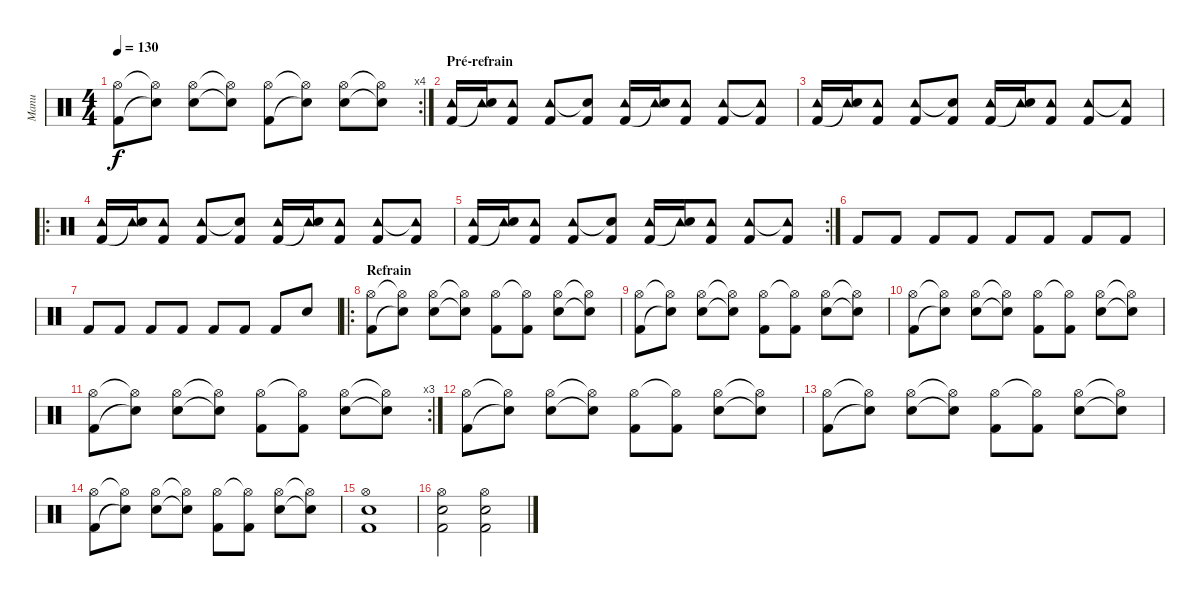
\track ("Manu" "Manu") {instrument percussion}
\staff {score}
\articulation defaults
\rc 4
\ts (4 4)
\tempo 130
\clef neutral
\ks c
("Hi-Hat (open)" "Kick (hit) 2").8{dy f} ("Hi-Hat (open)"{t} "Snare (hit) 2"{t}).8 ("Hi-Hat (open)" "Electric Snare (hit)").8 ("Hi-Hat (open)"{t} "Snare (hit) 2"{t}).8 ("Hi-Hat (open)" "Kick (hit) 2").8 ("Hi-Hat (open)"{t} "Snare (hit)"{t}).8 ("Hi-Hat (open)" "Electric Snare (hit)").8 ("Hi-Hat (open)"{t} "Snare (hit)"{t}).8 |
\section ("" "Pré-refrain")
("Tambourine (hit)" "Kick (hit) 2").16{volume 8} ("Tambourine (hit)" "Snare (hit)"{t}).16 ("Tambourine (hit)" "Kick (hit) 2").8 ("Tambourine (hit)" "Kick (hit) 2").8 ("Snare (hit)"{t} "Kick (hit) 2").8 ("Tambourine (hit)" "Kick (hit) 2").16 ("Tambourine (hit)" "Snare (hit)"{t}).16 ("Tambourine (hit)" "Kick (hit) 2").8 ("Tambourine (hit)" "Kick (hit) 2").8 ("Tambourine (hit)"{t} "Kick (hit) 2").8 |
("Tambourine (hit)" "Kick (hit) 2").16{volume 8} ("Tambourine (hit)" "Snare (hit)"{t}).16 ("Tambourine (hit)" "Kick (hit) 2").8 ("Tambourine (hit)" "Kick (hit) 2").8 ("Snare (hit)"{t} "Kick (hit) 2").8 ("Tambourine (hit)" "Kick (hit) 2").16 ("Tambourine (hit)" "Snare (hit)"{t}).16 ("Tambourine (hit)" "Kick (hit) 2").8 ("Tambourine (hit)" "Kick (hit) 2").8 ("Tambourine (hit)"{t} "Kick (hit) 2").8 |
\ro
("Tambourine (hit)" "Kick (hit) 2").16{volume 8} ("Tambourine (hit)" "Snare (hit)"{t}).16 ("Tambourine (hit)" "Kick (hit) 2").8 ("Tambourine (hit)" "Kick (hit) 2").8 ("Snare (hit)"{t} "Kick (hit) 2").8 ("Tambourine (hit)" "Kick (hit) 2").16 ("Tambourine (hit)" "Snare (hit)"{t}).16 ("Tambourine (hit)" "Kick (hit) 2").8 ("Tambourine (hit)" "Kick (hit) 2").8 ("Tambourine (hit)"{t} "Kick (hit) 2").8 |
\rc 2
("Tambourine (hit)" "Kick (hit) 2").16{volume 8} ("Tambourine (hit)" "Snare (hit)"{t}).16 ("Tambourine (hit)" "Kick (hit) 2").8 ("Tambourine (hit)" "Kick (hit) 2").8 ("Snare (hit)"{t} "Kick (hit) 2").8 ("Tambourine (hit)" "Kick (hit) 2").16 ("Tambourine (hit)" "Snare (hit)"{t}).16 ("Tambourine (hit)" "Kick (hit) 2").8 ("Tambourine (hit)" "Kick (hit) 2").8 ("Tambourine (hit)"{t} "Kick (hit) 2").8 |
"Kick (hit) 2".8{volume 10} "Kick (hit) 2".8 "Kick (hit) 2".8 "Kick (hit) 2".8 "Kick (hit) 2".8 "Kick (hit) 2".8 "Kick (hit) 2".8 "Kick (hit) 2".8 |
"Kick (hit) 2".8 "Kick (hit) 2".8 "Kick (hit) 2".8 "Kick (hit) 2".8 "Kick (hit) 2".8 "Kick (hit) 2".8 "Kick (hit) 2".8 "Snare (hit) 2".8 |
\ro
\section ("" "Refrain")
("Hi-Hat (open)" "Kick (hit) 2").8{volume 12} ("Hi-Hat (open)"{t} "Snare (hit) 2"{t}).8 ("Hi-Hat (open)" "Snare (hit) 2").8 ("Hi-Hat (open)"{t} "Snare (hit) 2"{t}).8 ("Hi-Hat (open)" "Kick (hit) 2").8 ("Hi-Hat (open)"{t} "Kick (hit) 2").8 ("Hi-Hat (open)" "Snare (hit) 2").8 ("Hi-Hat (open)"{t} "Snare (hit)"{t}).8 |
("Hi-Hat (open)" "Kick (hit) 2").8 ("Hi-Hat (open)"{t} "Snare (hit) 2"{t}).8 ("Hi-Hat (open)" "Snare (hit) 2").8 ("Hi-Hat (open)"{t} "Snare (hit) 2"{t}).8 ("Hi-Hat (open)" "Kick (hit) 2").8 ("Hi-Hat (open)"{t} "Kick (hit) 2").8 ("Hi-Hat (open)" "Snare (hit) 2").8 ("Hi-Hat (open)"{t} "Snare (hit)"{t}).8 |
("Hi-Hat (open)" "Kick (hit) 2").8 ("Hi-Hat (open)"{t} "Snare (hit) 2"{t}).8 ("Hi-Hat (open)" "Snare (hit) 2").8 ("Hi-Hat (open)"{t} "Snare (hit) 2"{t}).8 ("Hi-Hat (open)" "Kick (hit) 2").8 ("Hi-Hat (open)"{t} "Kick (hit) 2").8 ("Hi-Hat (open)" "Snare (hit) 2").8 ("Hi-Hat (open)"{t} "Snare (hit)"{t}).8 |
\rc 3
("Hi-Hat (open)" "Kick (hit) 2").8 ("Hi-Hat (open)"{t} "Snare (hit) 2"{t}).8 ("Hi-Hat (open)" "Snare (hit) 2").8 ("Hi-Hat (open)"{t} "Snare (hit) 2"{t}).8 ("Hi-Hat (open)" "Kick (hit) 2").8 ("Hi-Hat (open)"{t} "Kick (hit) 2").8 ("Hi-Hat (open)" "Snare (hit) 2").8 ("Hi-Hat (open)"{t} "Snare (hit)"{t}).8 |
("Hi-Hat (open)" "Kick (hit) 2").8 ("Hi-Hat (open)"{t} "Snare (hit) 2"{t}).8 ("Hi-Hat (open)" "Snare (hit) 2").8 ("Hi-Hat (open)"{t} "Snare (hit) 2"{t}).8 ("Hi-Hat (open)" "Kick (hit) 2").8 ("Hi-Hat (open)"{t} "Kick (hit) 2").8 ("Hi-Hat (open)" "Snare (hit) 2").8 ("Hi-Hat (open)"{t} "Snare (hit)"{t}).8 |
("Hi-Hat (open)" "Kick (hit) 2").8 ("Hi-Hat (open)"{t} "Snare (hit) 2"{t}).8 ("Hi-Hat (open)" "Snare (hit) 2").8 ("Hi-Hat (open)"{t} "Snare (hit) 2"{t}).8 ("Hi-Hat (open)" "Kick (hit) 2").8 ("Hi-Hat (open)"{t} "Kick (hit) 2").8 ("Hi-Hat (open)" "Snare (hit) 2").8 ("Hi-Hat (open)"{t} "Snare (hit)"{t}).8 |
("Hi-Hat (open)" "Kick (hit) 2").8 ("Hi-Hat (open)"{t} "Snare (hit) 2"{t}).8 ("Hi-Hat (open)" "Snare (hit) 2").8 ("Hi-Hat (open)"{t} "Snare (hit) 2"{t}).8 ("Hi-Hat (open)" "Kick (hit) 2").8 ("Hi-Hat (open)"{t} "Kick (hit) 2").8 ("Hi-Hat (open)" "Snare (hit) 2").8 ("Hi-Hat (open)"{t} "Snare (hit)"{t}).8 |
("Hi-Hat (open)" "Snare (hit) 2" "Kick (hit) 2").1 |
("Hi-Hat (open)" "Snare (hit) 2" "Kick (hit) 2").2 ("Hi-Hat (open)" "Snare (hit) 2" "Kick (hit) 2").2
